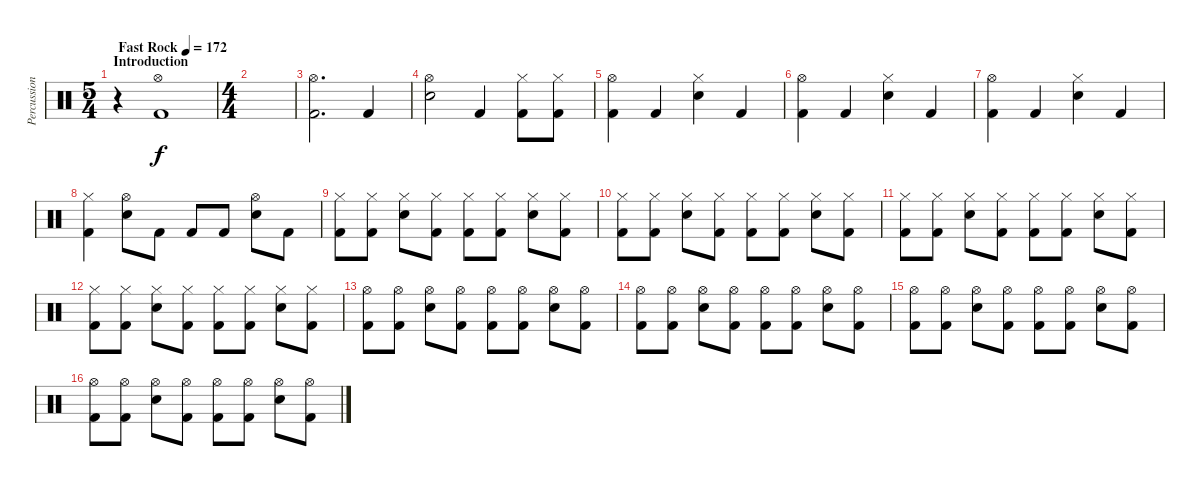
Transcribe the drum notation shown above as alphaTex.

\track ("Percussion" "Percussion") {instrument percussion}
\staff {score}
\articulation defaults
\ts (5 4)
\section ("" "Introduction")
\tempo (172 "Fast Rock")
\clef neutral
\ks c
r.4{dy f} ("Hi-Hat (open)" "Kick (hit) 2").1 |
\ts (4 4)
|
("Hi-Hat (open)" "Kick (hit) 2").2{d} "Kick (hit) 2".4 |
("Hi-Hat (open)" "Electric Snare (hit)").2 "Kick (hit) 2".4 ("Hi-Hat (closed)" "Kick (hit) 2").8 ("Hi-Hat (closed)" "Kick (hit) 2").8 |
("Hi-Hat (open)" "Kick (hit) 2").4 "Kick (hit) 2".4 ("Hi-Hat (closed)" "Electric Snare (hit)").4 "Kick (hit) 2".4 |
("Hi-Hat (open)" "Kick (hit) 2").4 "Kick (hit) 2".4 ("Hi-Hat (closed)" "Electric Snare (hit)").4 "Kick (hit) 2".4 |
("Hi-Hat (open)" "Kick (hit) 2").4 "Kick (hit) 2".4 ("Hi-Hat (closed)" "Electric Snare (hit)").4 "Kick (hit) 2".4 |
("Hi-Hat (closed)" "Kick (hit) 2").4 ("Hi-Hat (open)" "Electric Snare (hit)").8 "Kick (hit) 2".8 "Kick (hit) 2".8 "Kick (hit) 2".8 ("Hi-Hat (open)" "Electric Snare (hit)").8 "Kick (hit) 2".8 |
("Hi-Hat (closed)" "Kick (hit) 2").8 ("Hi-Hat (closed)" "Kick (hit) 2").8 ("Hi-Hat (closed)" "Electric Snare (hit)").8 ("Hi-Hat (closed)" "Kick (hit) 2").8 ("Hi-Hat (closed)" "Kick (hit) 2").8 ("Hi-Hat (closed)" "Kick (hit) 2").8 ("Hi-Hat (closed)" "Electric Snare (hit)").8 ("Hi-Hat (closed)" "Kick (hit) 2").8 |
("Hi-Hat (closed)" "Kick (hit) 2").8 ("Hi-Hat (closed)" "Kick (hit) 2").8 ("Hi-Hat (closed)" "Electric Snare (hit)").8 ("Hi-Hat (closed)" "Kick (hit) 2").8 ("Hi-Hat (closed)" "Kick (hit) 2").8 ("Hi-Hat (closed)" "Kick (hit) 2").8 ("Hi-Hat (closed)" "Electric Snare (hit)").8 ("Hi-Hat (closed)" "Kick (hit) 2").8 |
("Hi-Hat (closed)" "Kick (hit) 2").8 ("Hi-Hat (closed)" "Kick (hit) 2").8 ("Hi-Hat (closed)" "Electric Snare (hit)").8 ("Hi-Hat (closed)" "Kick (hit) 2").8 ("Hi-Hat (closed)" "Kick (hit) 2").8 ("Hi-Hat (closed)" "Kick (hit) 2").8 ("Hi-Hat (closed)" "Electric Snare (hit)").8 ("Hi-Hat (closed)" "Kick (hit) 2").8 |
("Hi-Hat (closed)" "Kick (hit) 2").8 ("Hi-Hat (closed)" "Kick (hit) 2").8 ("Hi-Hat (closed)" "Electric Snare (hit)").8 ("Hi-Hat (closed)" "Kick (hit) 2").8 ("Hi-Hat (closed)" "Kick (hit) 2").8 ("Hi-Hat (closed)" "Kick (hit) 2").8 ("Hi-Hat (closed)" "Electric Snare (hit)").8 ("Hi-Hat (closed)" "Kick (hit) 2").8 |
("Hi-Hat (open)" "Kick (hit) 2").8 ("Hi-Hat (open)" "Kick (hit) 2").8 ("Hi-Hat (open)" "Electric Snare (hit)").8 ("Hi-Hat (open)" "Kick (hit) 2").8 ("Hi-Hat (open)" "Kick (hit) 2").8 ("Hi-Hat (open)" "Kick (hit) 2").8 ("Hi-Hat (open)" "Electric Snare (hit)").8 ("Hi-Hat (open)" "Kick (hit) 2").8 |
("Hi-Hat (open)" "Kick (hit) 2").8 ("Hi-Hat (open)" "Kick (hit) 2").8 ("Hi-Hat (open)" "Electric Snare (hit)").8 ("Hi-Hat (open)" "Kick (hit) 2").8 ("Hi-Hat (open)" "Kick (hit) 2").8 ("Hi-Hat (open)" "Kick (hit) 2").8 ("Hi-Hat (open)" "Electric Snare (hit)").8 ("Hi-Hat (open)" "Kick (hit) 2").8 |
("Hi-Hat (open)" "Kick (hit) 2").8 ("Hi-Hat (open)" "Kick (hit) 2").8 ("Hi-Hat (open)" "Electric Snare (hit)").8 ("Hi-Hat (open)" "Kick (hit) 2").8 ("Hi-Hat (open)" "Kick (hit) 2").8 ("Hi-Hat (open)" "Kick (hit) 2").8 ("Hi-Hat (open)" "Electric Snare (hit)").8 ("Hi-Hat (open)" "Kick (hit) 2").8 |
("Hi-Hat (open)" "Kick (hit) 2").8 ("Hi-Hat (open)" "Kick (hit) 2").8 ("Hi-Hat (open)" "Electric Snare (hit)").8 ("Hi-Hat (open)" "Kick (hit) 2").8 ("Hi-Hat (open)" "Kick (hit) 2").8 ("Hi-Hat (open)" "Kick (hit) 2").8 ("Hi-Hat (open)" "Electric Snare (hit)").8 ("Hi-Hat (open)" "Kick (hit) 2").8
